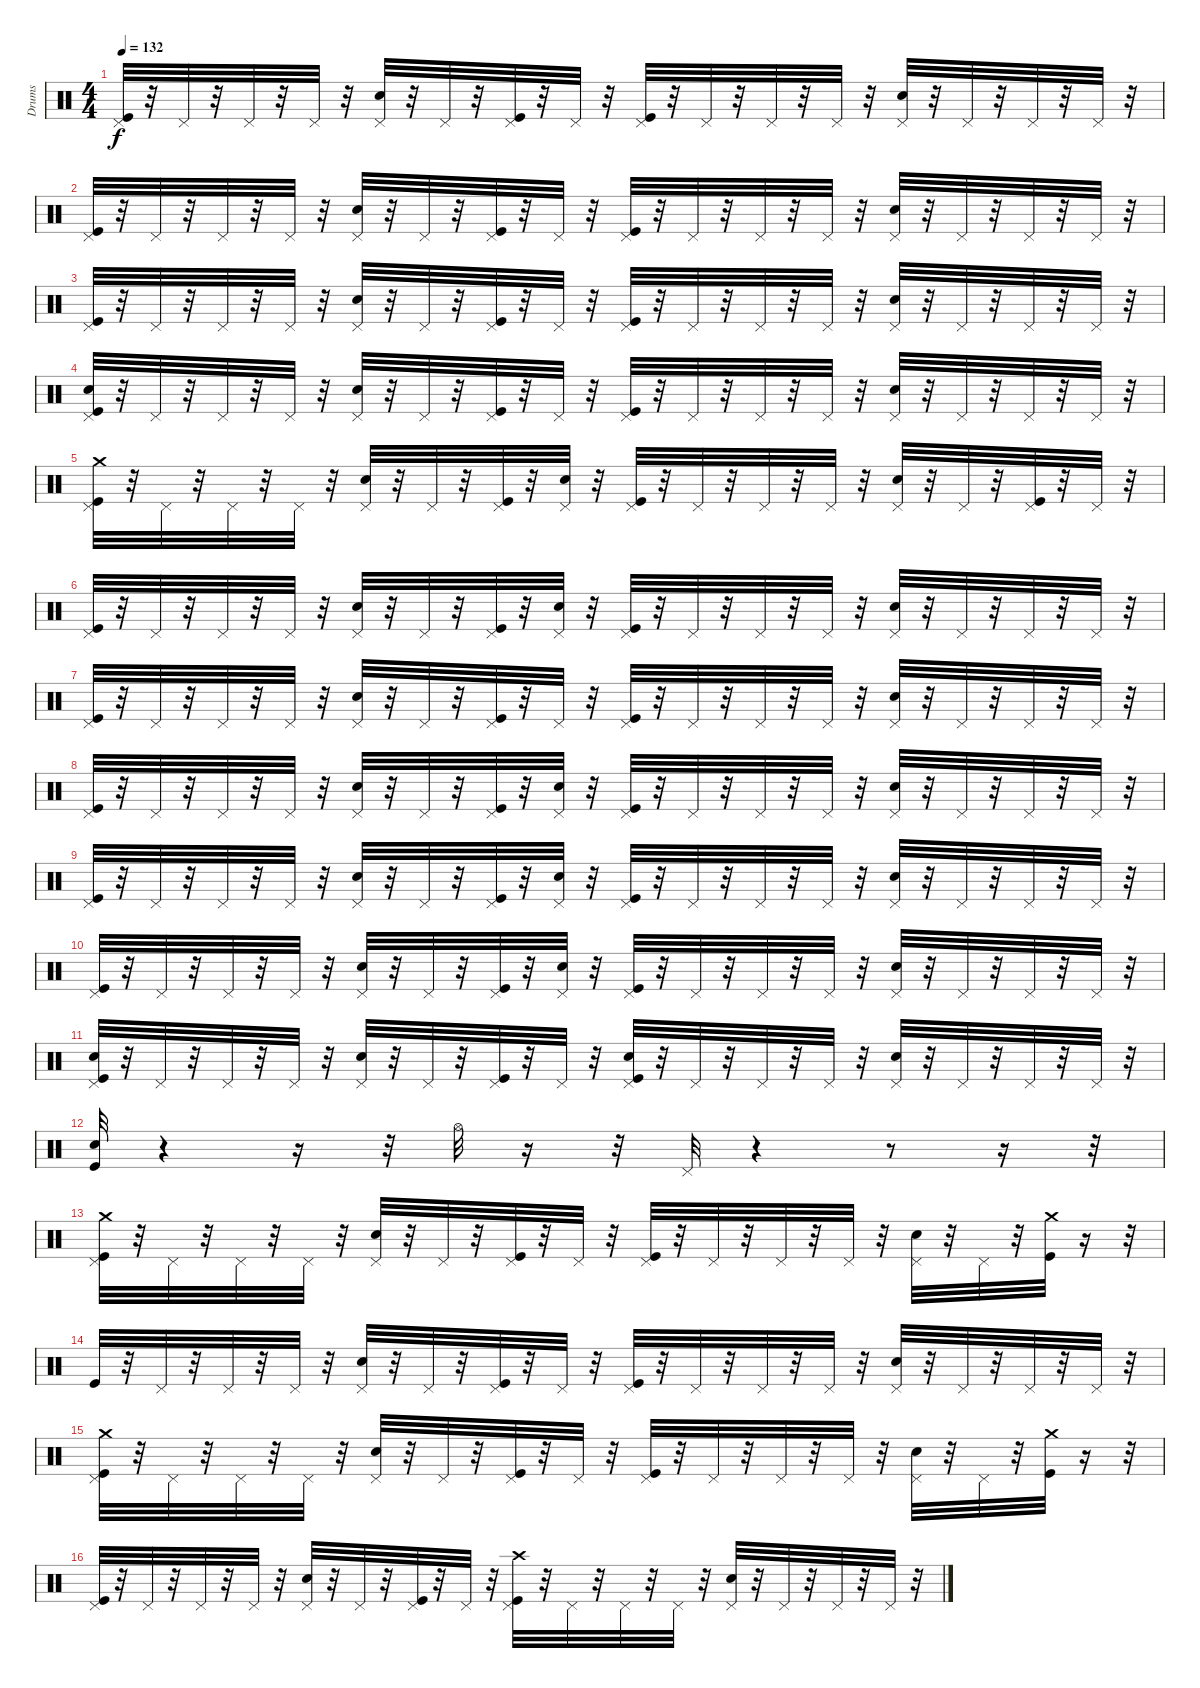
\track ("Drums" "Drums") {instrument percussion}
\staff {score}
\articulation defaults
\ts (4 4)
\tempo 132
\clef neutral
\ks c
("Kick (hit)" "Pedal Hi-Hat (hit)").32{dy f} r.32 "Pedal Hi-Hat (hit)".32 r.32 "Pedal Hi-Hat (hit)".32 r.32 "Pedal Hi-Hat (hit)".32 r.32 ("Electric Snare (hit)" "Pedal Hi-Hat (hit)").32 r.32 "Pedal Hi-Hat (hit)".32 r.32 ("Kick (hit)" "Pedal Hi-Hat (hit)").32 r.32 "Pedal Hi-Hat (hit)".32 r.32 ("Kick (hit)" "Pedal Hi-Hat (hit)").32 r.32 "Pedal Hi-Hat (hit)".32 r.32 "Pedal Hi-Hat (hit)".32 r.32 "Pedal Hi-Hat (hit)".32 r.32 ("Electric Snare (hit)" "Pedal Hi-Hat (hit)").32 r.32 "Pedal Hi-Hat (hit)".32 r.32 "Pedal Hi-Hat (hit)".32 r.32 "Pedal Hi-Hat (hit)".32 r.32 |
("Kick (hit)" "Pedal Hi-Hat (hit)").32 r.32 "Pedal Hi-Hat (hit)".32 r.32 "Pedal Hi-Hat (hit)".32 r.32 "Pedal Hi-Hat (hit)".32 r.32 ("Electric Snare (hit)" "Pedal Hi-Hat (hit)").32 r.32 "Pedal Hi-Hat (hit)".32 r.32 ("Kick (hit)" "Pedal Hi-Hat (hit)").32 r.32 "Pedal Hi-Hat (hit)".32 r.32 ("Kick (hit)" "Pedal Hi-Hat (hit)").32 r.32 "Pedal Hi-Hat (hit)".32 r.32 "Pedal Hi-Hat (hit)".32 r.32 "Pedal Hi-Hat (hit)".32 r.32 ("Electric Snare (hit)" "Pedal Hi-Hat (hit)").32 r.32 "Pedal Hi-Hat (hit)".32 r.32 "Pedal Hi-Hat (hit)".32 r.32 "Pedal Hi-Hat (hit)".32 r.32 |
("Pedal Hi-Hat (hit)" "Kick (hit)").32 r.32 "Pedal Hi-Hat (hit)".32 r.32 "Pedal Hi-Hat (hit)".32 r.32 "Pedal Hi-Hat (hit)".32 r.32 ("Pedal Hi-Hat (hit)" "Electric Snare (hit)").32 r.32 "Pedal Hi-Hat (hit)".32 r.32 ("Pedal Hi-Hat (hit)" "Kick (hit)").32 r.32 "Pedal Hi-Hat (hit)".32 r.32 ("Pedal Hi-Hat (hit)" "Kick (hit)").32 r.32 "Pedal Hi-Hat (hit)".32 r.32 "Pedal Hi-Hat (hit)".32 r.32 "Pedal Hi-Hat (hit)".32 r.32 ("Pedal Hi-Hat (hit)" "Electric Snare (hit)").32 r.32 "Pedal Hi-Hat (hit)".32 r.32 "Pedal Hi-Hat (hit)".32 r.32 "Pedal Hi-Hat (hit)".32 r.32 |
("Electric Snare (hit)" "Kick (hit)" "Pedal Hi-Hat (hit)").32 r.32 "Pedal Hi-Hat (hit)".32 r.32 "Pedal Hi-Hat (hit)".32 r.32 "Pedal Hi-Hat (hit)".32 r.32 ("Pedal Hi-Hat (hit)" "Electric Snare (hit)").32 r.32 "Pedal Hi-Hat (hit)".32 r.32 ("Pedal Hi-Hat (hit)" "Kick (hit)").32 r.32 "Pedal Hi-Hat (hit)".32 r.32 ("Pedal Hi-Hat (hit)" "Kick (hit)").32 r.32 "Pedal Hi-Hat (hit)".32 r.32 "Pedal Hi-Hat (hit)".32 r.32 "Pedal Hi-Hat (hit)".32 r.32 ("Pedal Hi-Hat (hit)" "Electric Snare (hit)").32 r.32 "Pedal Hi-Hat (hit)".32 r.32 "Pedal Hi-Hat (hit)".32 r.32 "Pedal Hi-Hat (hit)".32 r.32 |
("Crash medium (hit)" "Kick (hit)" "Pedal Hi-Hat (hit)").32 r.32 "Pedal Hi-Hat (hit)".32 r.32 "Pedal Hi-Hat (hit)".32 r.32 "Pedal Hi-Hat (hit)".32 r.32 ("Pedal Hi-Hat (hit)" "Electric Snare (hit)").32 r.32 "Pedal Hi-Hat (hit)".32 r.32 ("Pedal Hi-Hat (hit)" "Kick (hit)").32 r.32 ("Electric Snare (hit)" "Pedal Hi-Hat (hit)").32 r.32 ("Pedal Hi-Hat (hit)" "Kick (hit)").32 r.32 "Pedal Hi-Hat (hit)".32 r.32 "Pedal Hi-Hat (hit)".32 r.32 "Pedal Hi-Hat (hit)".32 r.32 ("Pedal Hi-Hat (hit)" "Electric Snare (hit)").32 r.32 "Pedal Hi-Hat (hit)".32 r.32 ("Pedal Hi-Hat (hit)" "Kick (hit)").32 r.32 "Pedal Hi-Hat (hit)".32 r.32 |
("Pedal Hi-Hat (hit)" "Kick (hit)").32 r.32 "Pedal Hi-Hat (hit)".32 r.32 "Pedal Hi-Hat (hit)".32 r.32 "Pedal Hi-Hat (hit)".32 r.32 ("Pedal Hi-Hat (hit)" "Electric Snare (hit)").32 r.32 "Pedal Hi-Hat (hit)".32 r.32 ("Pedal Hi-Hat (hit)" "Kick (hit)").32 r.32 ("Electric Snare (hit)" "Pedal Hi-Hat (hit)").32 r.32 ("Pedal Hi-Hat (hit)" "Kick (hit)").32 r.32 "Pedal Hi-Hat (hit)".32 r.32 "Pedal Hi-Hat (hit)".32 r.32 "Pedal Hi-Hat (hit)".32 r.32 ("Pedal Hi-Hat (hit)" "Electric Snare (hit)").32 r.32 "Pedal Hi-Hat (hit)".32 r.32 "Pedal Hi-Hat (hit)".32 r.32 "Pedal Hi-Hat (hit)".32 r.32 |
("Pedal Hi-Hat (hit)" "Kick (hit)").32 r.32 "Pedal Hi-Hat (hit)".32 r.32 "Pedal Hi-Hat (hit)".32 r.32 "Pedal Hi-Hat (hit)".32 r.32 ("Pedal Hi-Hat (hit)" "Electric Snare (hit)").32 r.32 "Pedal Hi-Hat (hit)".32 r.32 ("Pedal Hi-Hat (hit)" "Kick (hit)").32 r.32 "Pedal Hi-Hat (hit)".32 r.32 ("Pedal Hi-Hat (hit)" "Kick (hit)").32 r.32 "Pedal Hi-Hat (hit)".32 r.32 "Pedal Hi-Hat (hit)".32 r.32 "Pedal Hi-Hat (hit)".32 r.32 ("Pedal Hi-Hat (hit)" "Electric Snare (hit)").32 r.32 "Pedal Hi-Hat (hit)".32 r.32 "Pedal Hi-Hat (hit)".32 r.32 "Pedal Hi-Hat (hit)".32 r.32 |
("Pedal Hi-Hat (hit)" "Kick (hit)").32 r.32 "Pedal Hi-Hat (hit)".32 r.32 "Pedal Hi-Hat (hit)".32 r.32 "Pedal Hi-Hat (hit)".32 r.32 ("Pedal Hi-Hat (hit)" "Electric Snare (hit)").32 r.32 "Pedal Hi-Hat (hit)".32 r.32 ("Pedal Hi-Hat (hit)" "Kick (hit)").32 r.32 ("Electric Snare (hit)" "Pedal Hi-Hat (hit)").32 r.32 ("Pedal Hi-Hat (hit)" "Kick (hit)").32 r.32 "Pedal Hi-Hat (hit)".32 r.32 "Pedal Hi-Hat (hit)".32 r.32 "Pedal Hi-Hat (hit)".32 r.32 ("Pedal Hi-Hat (hit)" "Electric Snare (hit)").32 r.32 "Pedal Hi-Hat (hit)".32 r.32 "Pedal Hi-Hat (hit)".32 r.32 "Pedal Hi-Hat (hit)".32 r.32 |
("Kick (hit)" "Pedal Hi-Hat (hit)").32 r.32 "Pedal Hi-Hat (hit)".32 r.32 "Pedal Hi-Hat (hit)".32 r.32 "Pedal Hi-Hat (hit)".32 r.32 ("Electric Snare (hit)" "Pedal Hi-Hat (hit)").32 r.32 "Pedal Hi-Hat (hit)".32 r.32 ("Kick (hit)" "Pedal Hi-Hat (hit)").32 r.32 ("Electric Snare (hit)" "Pedal Hi-Hat (hit)").32 r.32 ("Kick (hit)" "Pedal Hi-Hat (hit)").32 r.32 "Pedal Hi-Hat (hit)".32 r.32 "Pedal Hi-Hat (hit)".32 r.32 "Pedal Hi-Hat (hit)".32 r.32 ("Electric Snare (hit)" "Pedal Hi-Hat (hit)").32 r.32 "Pedal Hi-Hat (hit)".32 r.32 "Pedal Hi-Hat (hit)".32 r.32 "Pedal Hi-Hat (hit)".32 r.32 |
("Kick (hit)" "Pedal Hi-Hat (hit)").32 r.32 "Pedal Hi-Hat (hit)".32 r.32 "Pedal Hi-Hat (hit)".32 r.32 "Pedal Hi-Hat (hit)".32 r.32 ("Electric Snare (hit)" "Pedal Hi-Hat (hit)").32 r.32 "Pedal Hi-Hat (hit)".32 r.32 ("Kick (hit)" "Pedal Hi-Hat (hit)").32 r.32 ("Electric Snare (hit)" "Pedal Hi-Hat (hit)").32 r.32 ("Kick (hit)" "Pedal Hi-Hat (hit)").32 r.32 "Pedal Hi-Hat (hit)".32 r.32 "Pedal Hi-Hat (hit)".32 r.32 "Pedal Hi-Hat (hit)".32 r.32 ("Electric Snare (hit)" "Pedal Hi-Hat (hit)").32 r.32 "Pedal Hi-Hat (hit)".32 r.32 "Pedal Hi-Hat (hit)".32 r.32 "Pedal Hi-Hat (hit)".32 r.32 |
("Electric Snare (hit)" "Pedal Hi-Hat (hit)" "Kick (hit)").32 r.32 "Pedal Hi-Hat (hit)".32 r.32 "Pedal Hi-Hat (hit)".32 r.32 "Pedal Hi-Hat (hit)".32 r.32 ("Pedal Hi-Hat (hit)" "Electric Snare (hit)").32 r.32 "Pedal Hi-Hat (hit)".32 r.32 ("Pedal Hi-Hat (hit)" "Kick (hit)").32 r.32 "Pedal Hi-Hat (hit)".32 r.32 ("Electric Snare (hit)" "Pedal Hi-Hat (hit)" "Kick (hit)").32 r.32 "Pedal Hi-Hat (hit)".32 r.32 "Pedal Hi-Hat (hit)".32 r.32 "Pedal Hi-Hat (hit)".32 r.32 ("Pedal Hi-Hat (hit)" "Electric Snare (hit)").32 r.32 "Pedal Hi-Hat (hit)".32 r.32 "Pedal Hi-Hat (hit)".32 r.32 "Pedal Hi-Hat (hit)".32 r.32 |
("Electric Snare (hit)" "Kick (hit)").32 r.4 r.16 r.32 "Hi-Hat (open)".32 r.16 r.32 "Pedal Hi-Hat (hit)".32 r.4 r.8 r.16 r.32 |
("Crash medium (hit)" "Kick (hit)" "Pedal Hi-Hat (hit)").32 r.32 "Pedal Hi-Hat (hit)".32 r.32 "Pedal Hi-Hat (hit)".32 r.32 "Pedal Hi-Hat (hit)".32 r.32 ("Pedal Hi-Hat (hit)" "Electric Snare (hit)").32 r.32 "Pedal Hi-Hat (hit)".32 r.32 ("Pedal Hi-Hat (hit)" "Kick (hit)").32 r.32 "Pedal Hi-Hat (hit)".32 r.32 ("Pedal Hi-Hat (hit)" "Kick (hit)").32 r.32 "Pedal Hi-Hat (hit)".32 r.32 "Pedal Hi-Hat (hit)".32 r.32 "Pedal Hi-Hat (hit)".32 r.32 ("Pedal Hi-Hat (hit)" "Electric Snare (hit)").32 r.32 "Pedal Hi-Hat (hit)".32 r.32 ("Kick (hit)" "Crash medium (hit)").32 r.16 r.32 |
"Kick (hit)".32 r.32 "Pedal Hi-Hat (hit)".32 r.32 "Pedal Hi-Hat (hit)".32 r.32 "Pedal Hi-Hat (hit)".32 r.32 ("Pedal Hi-Hat (hit)" "Electric Snare (hit)").32 r.32 "Pedal Hi-Hat (hit)".32 r.32 ("Pedal Hi-Hat (hit)" "Kick (hit)").32 r.32 "Pedal Hi-Hat (hit)".32 r.32 ("Pedal Hi-Hat (hit)" "Kick (hit)").32 r.32 "Pedal Hi-Hat (hit)".32 r.32 "Pedal Hi-Hat (hit)".32 r.32 "Pedal Hi-Hat (hit)".32 r.32 ("Pedal Hi-Hat (hit)" "Electric Snare (hit)").32 r.32 "Pedal Hi-Hat (hit)".32 r.32 "Pedal Hi-Hat (hit)".32 r.32 "Pedal Hi-Hat (hit)".32 r.32 |
("Crash medium (hit)" "Kick (hit)" "Pedal Hi-Hat (hit)").32 r.32 "Pedal Hi-Hat (hit)".32 r.32 "Pedal Hi-Hat (hit)".32 r.32 "Pedal Hi-Hat (hit)".32 r.32 ("Pedal Hi-Hat (hit)" "Electric Snare (hit)").32 r.32 "Pedal Hi-Hat (hit)".32 r.32 ("Pedal Hi-Hat (hit)" "Kick (hit)").32 r.32 "Pedal Hi-Hat (hit)".32 r.32 ("Pedal Hi-Hat (hit)" "Kick (hit)").32 r.32 "Pedal Hi-Hat (hit)".32 r.32 "Pedal Hi-Hat (hit)".32 r.32 "Pedal Hi-Hat (hit)".32 r.32 ("Pedal Hi-Hat (hit)" "Electric Snare (hit)").32 r.32 "Pedal Hi-Hat (hit)".32 r.32 ("Kick (hit)" "Crash medium (hit)").32 r.16 r.32 |
("Pedal Hi-Hat (hit)" "Kick (hit)").32 r.32 "Pedal Hi-Hat (hit)".32 r.32 "Pedal Hi-Hat (hit)".32 r.32 "Pedal Hi-Hat (hit)".32 r.32 ("Pedal Hi-Hat (hit)" "Electric Snare (hit)").32 r.32 "Pedal Hi-Hat (hit)".32 r.32 ("Pedal Hi-Hat (hit)" "Kick (hit)").32 r.32 "Pedal Hi-Hat (hit)".32 r.32 ("Crash high (hit)" "Pedal Hi-Hat (hit)" "Kick (hit)").32 r.32 "Pedal Hi-Hat (hit)".32 r.32 "Pedal Hi-Hat (hit)".32 r.32 "Pedal Hi-Hat (hit)".32 r.32 ("Pedal Hi-Hat (hit)" "Electric Snare (hit)").32 r.32 "Pedal Hi-Hat (hit)".32 r.32 "Pedal Hi-Hat (hit)".32 r.32 "Pedal Hi-Hat (hit)".32 r.32
